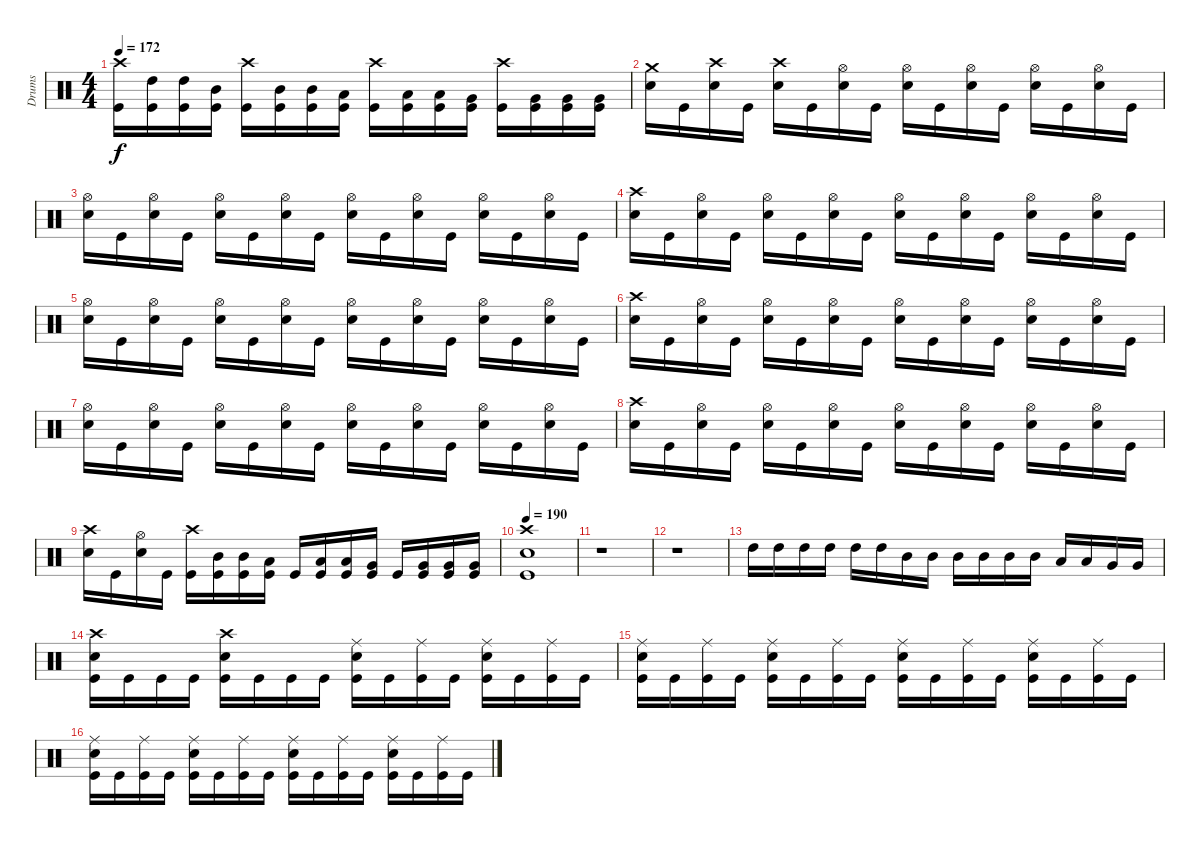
\track ("Drums" "Drums") {instrument percussion}
\staff {score}
\articulation defaults
\ts (4 4)
\tempo 172
\clef neutral
\ks c
("Crash high (hit)" "Kick (hit)").16{dy f} ("High Tom (hit)" "Kick (hit)").16 ("High Tom (hit)" "Kick (hit)").16 ("Mid Tom (hit)" "Kick (hit)").16 ("Crash high (hit)" "Kick (hit)").16 ("Mid Tom (hit)" "Kick (hit)").16 ("Mid Tom (hit)" "Kick (hit)").16 ("Low Tom (hit)" "Kick (hit)").16 ("Crash high (hit)" "Kick (hit)").16 ("Low Tom (hit)" "Kick (hit)").16 ("Low Tom (hit)" "Kick (hit)").16 ("Very Low Tom (hit)" "Kick (hit)").16 ("Crash high (hit)" "Kick (hit)").16 ("Very Low Tom (hit)" "Kick (hit)").16 ("Very Low Tom (hit)" "Kick (hit)").16 ("Very Low Tom (hit)" "Kick (hit)").16 |
("Crash medium (hit)" "Electric Snare (hit)").16 "Kick (hit)".16 ("Crash high (hit)" "Electric Snare (hit)").16 "Kick (hit)".16 ("Crash high (hit)" "Electric Snare (hit)").16 "Kick (hit)".16 ("Hi-Hat (open)" "Electric Snare (hit)").16 "Kick (hit)".16 ("Hi-Hat (open)" "Electric Snare (hit)").16 "Kick (hit)".16 ("Hi-Hat (open)" "Electric Snare (hit)").16 "Kick (hit)".16 ("Hi-Hat (open)" "Electric Snare (hit)").16 "Kick (hit)".16 ("Hi-Hat (open)" "Electric Snare (hit)").16 "Kick (hit)".16 |
("Hi-Hat (open)" "Electric Snare (hit)").16 "Kick (hit)".16 ("Hi-Hat (open)" "Electric Snare (hit)").16 "Kick (hit)".16 ("Hi-Hat (open)" "Electric Snare (hit)").16 "Kick (hit)".16 ("Hi-Hat (open)" "Electric Snare (hit)").16 "Kick (hit)".16 ("Hi-Hat (open)" "Electric Snare (hit)").16 "Kick (hit)".16 ("Hi-Hat (open)" "Electric Snare (hit)").16 "Kick (hit)".16 ("Hi-Hat (open)" "Electric Snare (hit)").16 "Kick (hit)".16 ("Hi-Hat (open)" "Electric Snare (hit)").16 "Kick (hit)".16 |
("Crash high (hit)" "Electric Snare (hit)").16 "Kick (hit)".16 ("Hi-Hat (open)" "Electric Snare (hit)").16 "Kick (hit)".16 ("Hi-Hat (open)" "Electric Snare (hit)").16 "Kick (hit)".16 ("Hi-Hat (open)" "Electric Snare (hit)").16 "Kick (hit)".16 ("Hi-Hat (open)" "Electric Snare (hit)").16 "Kick (hit)".16 ("Hi-Hat (open)" "Electric Snare (hit)").16 "Kick (hit)".16 ("Hi-Hat (open)" "Electric Snare (hit)").16 "Kick (hit)".16 ("Hi-Hat (open)" "Electric Snare (hit)").16 "Kick (hit)".16 |
("Hi-Hat (open)" "Electric Snare (hit)").16 "Kick (hit)".16 ("Hi-Hat (open)" "Electric Snare (hit)").16 "Kick (hit)".16 ("Hi-Hat (open)" "Electric Snare (hit)").16 "Kick (hit)".16 ("Hi-Hat (open)" "Electric Snare (hit)").16 "Kick (hit)".16 ("Hi-Hat (open)" "Electric Snare (hit)").16 "Kick (hit)".16 ("Hi-Hat (open)" "Electric Snare (hit)").16 "Kick (hit)".16 ("Hi-Hat (open)" "Electric Snare (hit)").16 "Kick (hit)".16 ("Hi-Hat (open)" "Electric Snare (hit)").16 "Kick (hit)".16 |
("Crash high (hit)" "Electric Snare (hit)").16 "Kick (hit)".16 ("Hi-Hat (open)" "Electric Snare (hit)").16 "Kick (hit)".16 ("Hi-Hat (open)" "Electric Snare (hit)").16 "Kick (hit)".16 ("Hi-Hat (open)" "Electric Snare (hit)").16 "Kick (hit)".16 ("Hi-Hat (open)" "Electric Snare (hit)").16 "Kick (hit)".16 ("Hi-Hat (open)" "Electric Snare (hit)").16 "Kick (hit)".16 ("Hi-Hat (open)" "Electric Snare (hit)").16 "Kick (hit)".16 ("Hi-Hat (open)" "Electric Snare (hit)").16 "Kick (hit)".16 |
("Hi-Hat (open)" "Electric Snare (hit)").16 "Kick (hit)".16 ("Hi-Hat (open)" "Electric Snare (hit)").16 "Kick (hit)".16 ("Hi-Hat (open)" "Electric Snare (hit)").16 "Kick (hit)".16 ("Hi-Hat (open)" "Electric Snare (hit)").16 "Kick (hit)".16 ("Hi-Hat (open)" "Electric Snare (hit)").16 "Kick (hit)".16 ("Hi-Hat (open)" "Electric Snare (hit)").16 "Kick (hit)".16 ("Hi-Hat (open)" "Electric Snare (hit)").16 "Kick (hit)".16 ("Hi-Hat (open)" "Electric Snare (hit)").16 "Kick (hit)".16 |
("Crash high (hit)" "Electric Snare (hit)").16 "Kick (hit)".16 ("Hi-Hat (open)" "Electric Snare (hit)").16 "Kick (hit)".16 ("Hi-Hat (open)" "Electric Snare (hit)").16 "Kick (hit)".16 ("Hi-Hat (open)" "Electric Snare (hit)").16 "Kick (hit)".16 ("Hi-Hat (open)" "Electric Snare (hit)").16 "Kick (hit)".16 ("Hi-Hat (open)" "Electric Snare (hit)").16 "Kick (hit)".16 ("Hi-Hat (open)" "Electric Snare (hit)").16 "Kick (hit)".16 ("Hi-Hat (open)" "Electric Snare (hit)").16 "Kick (hit)".16 |
("Crash high (hit)" "Electric Snare (hit)").16 "Kick (hit)".16 ("Hi-Hat (open)" "Electric Snare (hit)").16 "Kick (hit)".16 ("Crash high (hit)" "Kick (hit)").16 ("Mid Tom (hit)" "Kick (hit)").16 ("Mid Tom (hit)" "Kick (hit)").16 ("Low Tom (hit)" "Kick (hit)").16 "Kick (hit)".16 ("Low Tom (hit)" "Kick (hit)").16 ("Low Tom (hit)" "Kick (hit)").16 ("Very Low Tom (hit)" "Kick (hit)").16 "Kick (hit)".16 ("Very Low Tom (hit)" "Kick (hit)").16 ("Very Low Tom (hit)" "Kick (hit)").16 ("Very Low Tom (hit)" "Kick (hit)").16 |
\tempo 190
("Crash high (hit)" "Electric Snare (hit)" "Kick (hit)").1 |
r.1 |
r.1 |
"High Tom (hit)".16 "High Tom (hit)".16 "High Tom (hit)".16 "High Tom (hit)".16 "High Tom (hit)".16 "High Tom (hit)".16 "Mid Tom (hit)".16 "Mid Tom (hit)".16 "Mid Tom (hit)".16 "Mid Tom (hit)".16 "Mid Tom (hit)".16 "Mid Tom (hit)".16 "Low Tom (hit)".16 "Low Tom (hit)".16 "Very Low Tom (hit)".16 "Very Low Tom (hit)".16 |
("Crash high (hit)" "Electric Snare (hit)" "Kick (hit)").16 "Kick (hit)".16 "Kick (hit)".16 "Kick (hit)".16 ("Crash high (hit)" "Electric Snare (hit)" "Kick (hit)").16 "Kick (hit)".16 "Kick (hit)".16 "Kick (hit)".16 ("Ride (middle)" "Electric Snare (hit)" "Kick (hit)").16 "Kick (hit)".16 ("Ride (middle)" "Kick (hit)").16 "Kick (hit)".16 ("Ride (middle)" "Electric Snare (hit)" "Kick (hit)").16 "Kick (hit)".16 ("Ride (middle)" "Kick (hit)").16 "Kick (hit)".16 |
("Ride (middle)" "Electric Snare (hit)" "Kick (hit)").16 "Kick (hit)".16 ("Ride (middle)" "Kick (hit)").16 "Kick (hit)".16 ("Ride (middle)" "Electric Snare (hit)" "Kick (hit)").16 "Kick (hit)".16 ("Ride (middle)" "Kick (hit)").16 "Kick (hit)".16 ("Ride (middle)" "Electric Snare (hit)" "Kick (hit)").16 "Kick (hit)".16 ("Ride (middle)" "Kick (hit)").16 "Kick (hit)".16 ("Ride (middle)" "Electric Snare (hit)" "Kick (hit)").16 "Kick (hit)".16 ("Ride (middle)" "Kick (hit)").16 "Kick (hit)".16 |
("Ride (middle)" "Electric Snare (hit)" "Kick (hit)").16 "Kick (hit)".16 ("Ride (middle)" "Kick (hit)").16 "Kick (hit)".16 ("Ride (middle)" "Electric Snare (hit)" "Kick (hit)").16 "Kick (hit)".16 ("Ride (middle)" "Kick (hit)").16 "Kick (hit)".16 ("Ride (middle)" "Electric Snare (hit)" "Kick (hit)").16 "Kick (hit)".16 ("Ride (middle)" "Kick (hit)").16 "Kick (hit)".16 ("Ride (middle)" "Electric Snare (hit)" "Kick (hit)").16 "Kick (hit)".16 ("Ride (middle)" "Kick (hit)").16 "Kick (hit)".16
